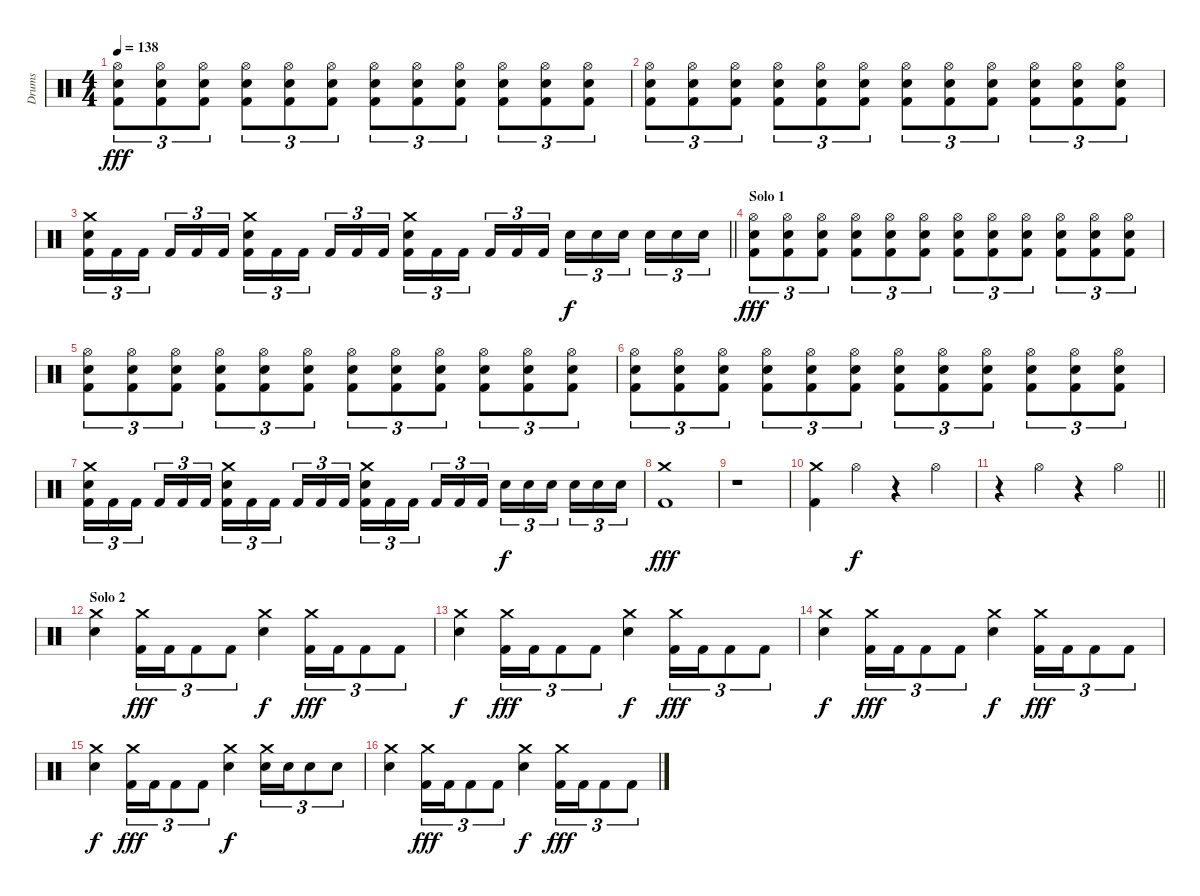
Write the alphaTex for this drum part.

\track ("Drums" "Drums") {instrument percussion}
\staff {score}
\articulation defaults
\ts (4 4)
\tempo 138
\clef neutral
\ks c
("Hi-Hat (open)" "Electric Snare (hit)" "Kick (hit) 2").8{tu (3 2) dy fff} ("Hi-Hat (open)" "Electric Snare (hit)" "Kick (hit) 2").8{tu (3 2)} ("Hi-Hat (open)" "Electric Snare (hit)" "Kick (hit) 2").8{tu (3 2)} ("Hi-Hat (open)" "Electric Snare (hit)" "Kick (hit) 2").8{tu (3 2)} ("Hi-Hat (open)" "Electric Snare (hit)" "Kick (hit) 2").8{tu (3 2)} ("Hi-Hat (open)" "Electric Snare (hit)" "Kick (hit) 2").8{tu (3 2)} ("Hi-Hat (open)" "Electric Snare (hit)" "Kick (hit) 2").8{tu (3 2)} ("Hi-Hat (open)" "Electric Snare (hit)" "Kick (hit) 2").8{tu (3 2)} ("Hi-Hat (open)" "Electric Snare (hit)" "Kick (hit) 2").8{tu (3 2)} ("Hi-Hat (open)" "Electric Snare (hit)" "Kick (hit) 2").8{tu (3 2)} ("Hi-Hat (open)" "Electric Snare (hit)" "Kick (hit) 2").8{tu (3 2)} ("Hi-Hat (open)" "Electric Snare (hit)" "Kick (hit) 2").8{tu (3 2)} |
("Hi-Hat (open)" "Electric Snare (hit)" "Kick (hit) 2").8{tu (3 2)} ("Hi-Hat (open)" "Electric Snare (hit)" "Kick (hit) 2").8{tu (3 2)} ("Hi-Hat (open)" "Electric Snare (hit)" "Kick (hit) 2").8{tu (3 2)} ("Hi-Hat (open)" "Electric Snare (hit)" "Kick (hit) 2").8{tu (3 2)} ("Hi-Hat (open)" "Electric Snare (hit)" "Kick (hit) 2").8{tu (3 2)} ("Hi-Hat (open)" "Electric Snare (hit)" "Kick (hit) 2").8{tu (3 2)} ("Hi-Hat (open)" "Electric Snare (hit)" "Kick (hit) 2").8{tu (3 2)} ("Hi-Hat (open)" "Electric Snare (hit)" "Kick (hit) 2").8{tu (3 2)} ("Hi-Hat (open)" "Electric Snare (hit)" "Kick (hit) 2").8{tu (3 2)} ("Hi-Hat (open)" "Electric Snare (hit)" "Kick (hit) 2").8{tu (3 2)} ("Hi-Hat (open)" "Electric Snare (hit)" "Kick (hit) 2").8{tu (3 2)} ("Hi-Hat (open)" "Electric Snare (hit)" "Kick (hit) 2").8{tu (3 2)} |
\barLineRight lightlight
("Crash medium (hit)" "Electric Snare (hit)" "Kick (hit) 2").16{tu (3 2)} "Kick (hit) 2".16{tu (3 2)} "Kick (hit) 2".16{tu (3 2) beam splitsecondary} "Kick (hit) 2".16{tu (3 2)} "Kick (hit) 2".16{tu (3 2)} "Kick (hit) 2".16{tu (3 2)} ("Crash medium (hit)" "Electric Snare (hit)" "Kick (hit) 2").16{tu (3 2)} "Kick (hit) 2".16{tu (3 2)} "Kick (hit) 2".16{tu (3 2) beam splitsecondary} "Kick (hit) 2".16{tu (3 2)} "Kick (hit) 2".16{tu (3 2)} "Kick (hit) 2".16{tu (3 2)} ("Crash medium (hit)" "Electric Snare (hit)" "Kick (hit) 2").16{tu (3 2)} "Kick (hit) 2".16{tu (3 2)} "Kick (hit) 2".16{tu (3 2) beam splitsecondary} "Kick (hit) 2".16{tu (3 2)} "Kick (hit) 2".16{tu (3 2)} "Kick (hit) 2".16{tu (3 2)} "Electric Snare (hit)".16{tu (3 2) dy f} "Electric Snare (hit)".16{tu (3 2)} "Electric Snare (hit)".16{tu (3 2) beam splitsecondary} "Electric Snare (hit)".16{tu (3 2)} "Electric Snare (hit)".16{tu (3 2)} "Electric Snare (hit)".16{tu (3 2)} |
\section ("" "Solo 1")
("Hi-Hat (open)" "Electric Snare (hit)" "Kick (hit) 2").8{tu (3 2) dy fff} ("Hi-Hat (open)" "Electric Snare (hit)" "Kick (hit) 2").8{tu (3 2)} ("Hi-Hat (open)" "Electric Snare (hit)" "Kick (hit) 2").8{tu (3 2)} ("Hi-Hat (open)" "Electric Snare (hit)" "Kick (hit) 2").8{tu (3 2)} ("Hi-Hat (open)" "Electric Snare (hit)" "Kick (hit) 2").8{tu (3 2)} ("Hi-Hat (open)" "Electric Snare (hit)" "Kick (hit) 2").8{tu (3 2)} ("Hi-Hat (open)" "Electric Snare (hit)" "Kick (hit) 2").8{tu (3 2)} ("Hi-Hat (open)" "Electric Snare (hit)" "Kick (hit) 2").8{tu (3 2)} ("Hi-Hat (open)" "Electric Snare (hit)" "Kick (hit) 2").8{tu (3 2)} ("Hi-Hat (open)" "Electric Snare (hit)" "Kick (hit) 2").8{tu (3 2)} ("Hi-Hat (open)" "Electric Snare (hit)" "Kick (hit) 2").8{tu (3 2)} ("Hi-Hat (open)" "Electric Snare (hit)" "Kick (hit) 2").8{tu (3 2)} |
("Hi-Hat (open)" "Electric Snare (hit)" "Kick (hit) 2").8{tu (3 2)} ("Hi-Hat (open)" "Electric Snare (hit)" "Kick (hit) 2").8{tu (3 2)} ("Hi-Hat (open)" "Electric Snare (hit)" "Kick (hit) 2").8{tu (3 2)} ("Hi-Hat (open)" "Electric Snare (hit)" "Kick (hit) 2").8{tu (3 2)} ("Hi-Hat (open)" "Electric Snare (hit)" "Kick (hit) 2").8{tu (3 2)} ("Hi-Hat (open)" "Electric Snare (hit)" "Kick (hit) 2").8{tu (3 2)} ("Hi-Hat (open)" "Electric Snare (hit)" "Kick (hit) 2").8{tu (3 2)} ("Hi-Hat (open)" "Electric Snare (hit)" "Kick (hit) 2").8{tu (3 2)} ("Hi-Hat (open)" "Electric Snare (hit)" "Kick (hit) 2").8{tu (3 2)} ("Hi-Hat (open)" "Electric Snare (hit)" "Kick (hit) 2").8{tu (3 2)} ("Hi-Hat (open)" "Electric Snare (hit)" "Kick (hit) 2").8{tu (3 2)} ("Hi-Hat (open)" "Electric Snare (hit)" "Kick (hit) 2").8{tu (3 2)} |
("Hi-Hat (open)" "Electric Snare (hit)" "Kick (hit) 2").8{tu (3 2)} ("Hi-Hat (open)" "Electric Snare (hit)" "Kick (hit) 2").8{tu (3 2)} ("Hi-Hat (open)" "Electric Snare (hit)" "Kick (hit) 2").8{tu (3 2)} ("Hi-Hat (open)" "Electric Snare (hit)" "Kick (hit) 2").8{tu (3 2)} ("Hi-Hat (open)" "Electric Snare (hit)" "Kick (hit) 2").8{tu (3 2)} ("Hi-Hat (open)" "Electric Snare (hit)" "Kick (hit) 2").8{tu (3 2)} ("Hi-Hat (open)" "Electric Snare (hit)" "Kick (hit) 2").8{tu (3 2)} ("Hi-Hat (open)" "Electric Snare (hit)" "Kick (hit) 2").8{tu (3 2)} ("Hi-Hat (open)" "Electric Snare (hit)" "Kick (hit) 2").8{tu (3 2)} ("Hi-Hat (open)" "Electric Snare (hit)" "Kick (hit) 2").8{tu (3 2)} ("Hi-Hat (open)" "Electric Snare (hit)" "Kick (hit) 2").8{tu (3 2)} ("Hi-Hat (open)" "Electric Snare (hit)" "Kick (hit) 2").8{tu (3 2)} |
("Crash medium (hit)" "Electric Snare (hit)" "Kick (hit) 2").16{tu (3 2)} "Kick (hit) 2".16{tu (3 2)} "Kick (hit) 2".16{tu (3 2) beam splitsecondary} "Kick (hit) 2".16{tu (3 2)} "Kick (hit) 2".16{tu (3 2)} "Kick (hit) 2".16{tu (3 2)} ("Crash medium (hit)" "Electric Snare (hit)" "Kick (hit) 2").16{tu (3 2)} "Kick (hit) 2".16{tu (3 2)} "Kick (hit) 2".16{tu (3 2) beam splitsecondary} "Kick (hit) 2".16{tu (3 2)} "Kick (hit) 2".16{tu (3 2)} "Kick (hit) 2".16{tu (3 2)} ("Crash medium (hit)" "Electric Snare (hit)" "Kick (hit) 2").16{tu (3 2)} "Kick (hit) 2".16{tu (3 2)} "Kick (hit) 2".16{tu (3 2) beam splitsecondary} "Kick (hit) 2".16{tu (3 2)} "Kick (hit) 2".16{tu (3 2)} "Kick (hit) 2".16{tu (3 2)} "Electric Snare (hit)".16{tu (3 2) dy f} "Electric Snare (hit)".16{tu (3 2)} "Electric Snare (hit)".16{tu (3 2) beam splitsecondary} "Electric Snare (hit)".16{tu (3 2)} "Electric Snare (hit)".16{tu (3 2)} "Electric Snare (hit)".16{tu (3 2)} |
("Crash medium (hit)" "Kick (hit) 2").1{dy fff} |
r.1 |
("Crash medium (hit)" "Kick (hit) 2").4 "Hi-Hat (open)".4{dy f} r.4 "Hi-Hat (open)".4 |
\barLineRight lightlight
r.4 "Hi-Hat (open)".4 r.4 "Hi-Hat (open)".4 |
\section ("" "Solo 2")
("Crash medium (hit)" "Electric Snare (hit)").4 ("Crash medium (hit)" "Kick (hit) 2").16{tu (3 2) dy fff} "Kick (hit) 2".16{tu (3 2)} "Kick (hit) 2".8{tu (3 2)} "Kick (hit) 2".8{tu (3 2)} ("Crash medium (hit)" "Electric Snare (hit)").4{dy f} ("Crash medium (hit)" "Kick (hit) 2").16{tu (3 2) dy fff} "Kick (hit) 2".16{tu (3 2)} "Kick (hit) 2".8{tu (3 2)} "Kick (hit) 2".8{tu (3 2)} |
("Crash medium (hit)" "Electric Snare (hit)").4{dy f} ("Crash medium (hit)" "Kick (hit) 2").16{tu (3 2) dy fff} "Kick (hit) 2".16{tu (3 2)} "Kick (hit) 2".8{tu (3 2)} "Kick (hit) 2".8{tu (3 2)} ("Crash medium (hit)" "Electric Snare (hit)").4{dy f} ("Crash medium (hit)" "Kick (hit) 2").16{tu (3 2) dy fff} "Kick (hit) 2".16{tu (3 2)} "Kick (hit) 2".8{tu (3 2)} "Kick (hit) 2".8{tu (3 2)} |
("Crash medium (hit)" "Electric Snare (hit)").4{dy f} ("Crash medium (hit)" "Kick (hit) 2").16{tu (3 2) dy fff} "Kick (hit) 2".16{tu (3 2)} "Kick (hit) 2".8{tu (3 2)} "Kick (hit) 2".8{tu (3 2)} ("Crash medium (hit)" "Electric Snare (hit)").4{dy f} ("Crash medium (hit)" "Kick (hit) 2").16{tu (3 2) dy fff} "Kick (hit) 2".16{tu (3 2)} "Kick (hit) 2".8{tu (3 2)} "Kick (hit) 2".8{tu (3 2)} |
("Crash medium (hit)" "Electric Snare (hit)").4{dy f} ("Crash medium (hit)" "Kick (hit) 2").16{tu (3 2) dy fff} "Kick (hit) 2".16{tu (3 2)} "Kick (hit) 2".8{tu (3 2)} "Kick (hit) 2".8{tu (3 2)} ("Crash medium (hit)" "Electric Snare (hit)").4{dy f} ("Crash medium (hit)" "Electric Snare (hit)").16{tu (3 2)} "Electric Snare (hit)".16{tu (3 2)} "Electric Snare (hit)".8{tu (3 2)} "Electric Snare (hit)".8{tu (3 2)} |
("Crash medium (hit)" "Electric Snare (hit)").4 ("Crash medium (hit)" "Kick (hit) 2").16{tu (3 2) dy fff} "Kick (hit) 2".16{tu (3 2)} "Kick (hit) 2".8{tu (3 2)} "Kick (hit) 2".8{tu (3 2)} ("Crash medium (hit)" "Electric Snare (hit)").4{dy f} ("Crash medium (hit)" "Kick (hit) 2").16{tu (3 2) dy fff} "Kick (hit) 2".16{tu (3 2)} "Kick (hit) 2".8{tu (3 2)} "Kick (hit) 2".8{tu (3 2)}
